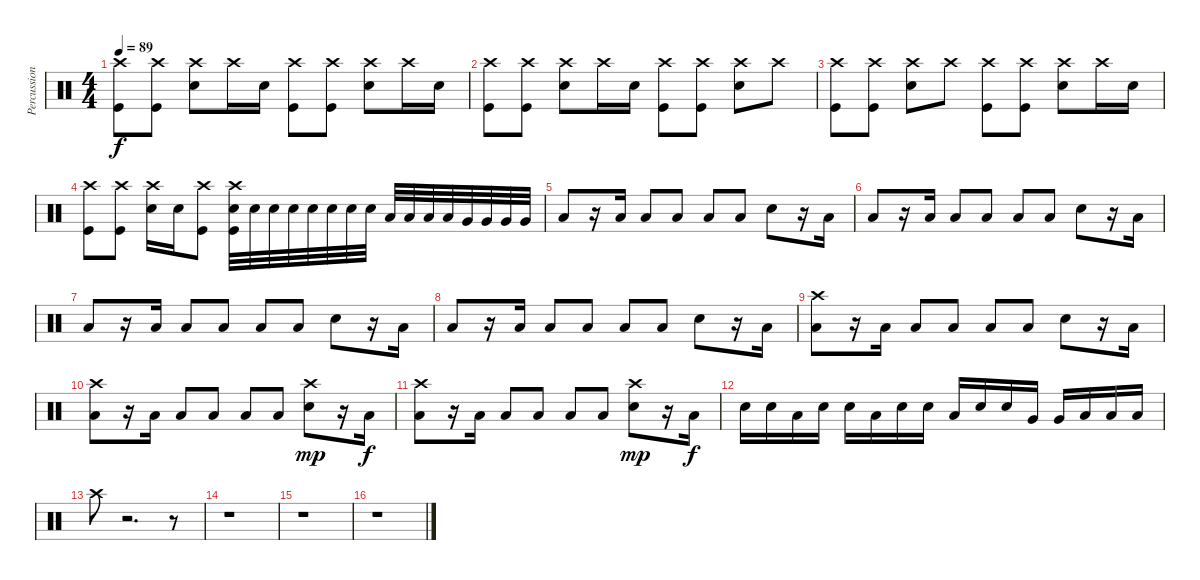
\track ("Percussion" "Percussion") {instrument percussion}
\staff {score}
\articulation defaults
\ts (4 4)
\tempo 89
\clef neutral
\ks c
("Crash high (hit)" "Kick (hit)").8{dy f} ("Crash high (hit)" "Kick (hit)").8 ("Crash high (hit)" "Electric Snare (hit)").8 "Crash high (hit)".16 "Electric Snare (hit)".16 ("Crash high (hit)" "Kick (hit)").8 ("Crash high (hit)" "Kick (hit)").8 ("Crash high (hit)" "Electric Snare (hit)").8 "Crash high (hit)".16 "Electric Snare (hit)".16 |
("Crash high (hit)" "Kick (hit)").8 ("Crash high (hit)" "Kick (hit)").8 ("Crash high (hit)" "Electric Snare (hit)").8 "Crash high (hit)".16 "Electric Snare (hit)".16 ("Crash high (hit)" "Kick (hit)").8 ("Crash high (hit)" "Kick (hit)").8 ("Crash high (hit)" "Electric Snare (hit)").8 "Crash high (hit)".8 |
("Crash high (hit)" "Kick (hit)").8 ("Crash high (hit)" "Kick (hit)").8 ("Crash high (hit)" "Electric Snare (hit)").8 "Crash high (hit)".8 ("Crash high (hit)" "Kick (hit)").8 ("Crash high (hit)" "Kick (hit)").8 ("Crash high (hit)" "Electric Snare (hit)").8 "Crash high (hit)".16 "Electric Snare (hit)".16 |
("Crash high (hit)" "Kick (hit)").8 ("Crash high (hit)" "Kick (hit)").8 ("Crash high (hit)" "Electric Snare (hit)").16 "Electric Snare (hit)".16 ("Crash high (hit)" "Kick (hit)").8 ("Crash high (hit)" "Electric Snare (hit)" "Kick (hit)").32 "Electric Snare (hit)".32 "Electric Snare (hit)".32 "Electric Snare (hit)".32 "Electric Snare (hit)".32 "Electric Snare (hit)".32 "Electric Snare (hit)".32 "Electric Snare (hit)".32 "Low Tom (hit)".32 "Low Tom (hit)".32 "Low Tom (hit)".32 "Low Tom (hit)".32 "Very Low Tom (hit)".32 "Very Low Tom (hit)".32 "Very Low Tom (hit)".32 "Very Low Tom (hit)".32 |
"Low Floor Tom (hit)".8 r.16 "Low Floor Tom (hit)".16 "Low Floor Tom (hit)".8 "Low Floor Tom (hit)".8 "Low Floor Tom (hit)".8 "Low Floor Tom (hit)".8 "Electric Snare (hit)".8 r.16 "Low Floor Tom (hit)".16 |
"Low Floor Tom (hit)".8 r.16 "Low Floor Tom (hit)".16 "Low Floor Tom (hit)".8 "Low Floor Tom (hit)".8 "Low Floor Tom (hit)".8 "Low Floor Tom (hit)".8 "Electric Snare (hit)".8 r.16 "Low Floor Tom (hit)".16 |
"Low Floor Tom (hit)".8 r.16 "Low Floor Tom (hit)".16 "Low Floor Tom (hit)".8 "Low Floor Tom (hit)".8 "Low Floor Tom (hit)".8 "Low Floor Tom (hit)".8 "Electric Snare (hit)".8 r.16 "Low Floor Tom (hit)".16 |
"Low Floor Tom (hit)".8 r.16 "Low Floor Tom (hit)".16 "Low Floor Tom (hit)".8 "Low Floor Tom (hit)".8 "Low Floor Tom (hit)".8 "Low Floor Tom (hit)".8 "Electric Snare (hit)".8 r.16 "Low Floor Tom (hit)".16 |
("Crash high (hit)" "Low Floor Tom (hit)").8 r.16 "Low Floor Tom (hit)".16 "Low Floor Tom (hit)".8 "Low Floor Tom (hit)".8 "Low Floor Tom (hit)".8 "Low Floor Tom (hit)".8 "Electric Snare (hit)".8 r.16 "Low Floor Tom (hit)".16 |
("Crash high (hit)" "Low Floor Tom (hit)").8 r.16 "Low Floor Tom (hit)".16 "Low Floor Tom (hit)".8 "Low Floor Tom (hit)".8 "Low Floor Tom (hit)".8 "Low Floor Tom (hit)".8 ("Crash high (hit)" "Electric Snare (hit)").8{dy mp} r.16 "Low Floor Tom (hit)".16{dy f} |
("Crash high (hit)" "Low Floor Tom (hit)").8 r.16 "Low Floor Tom (hit)".16 "Low Floor Tom (hit)".8 "Low Floor Tom (hit)".8 "Low Floor Tom (hit)".8 "Low Floor Tom (hit)".8 ("Crash high (hit)" "Electric Snare (hit)").8{dy mp} r.16 "Low Floor Tom (hit)".16{dy f} |
"Electric Snare (hit)".16 "Electric Snare (hit)".16 "Low Floor Tom (hit)".16 "Electric Snare (hit)".16 "Electric Snare (hit)".16 "Low Floor Tom (hit)".16 "Electric Snare (hit)".16 "Electric Snare (hit)".16 "Low Floor Tom (hit)".16 "Electric Snare (hit)".16 "Electric Snare (hit)".16 "Very Low Tom (hit)".16 "Very Low Tom (hit)".16 "Low Floor Tom (hit)".16 "Low Floor Tom (hit)".16 "Low Floor Tom (hit)".16 |
"Crash high (hit)".8 r.2{d} r.8 |
r.1 |
r.1 |
r.1
